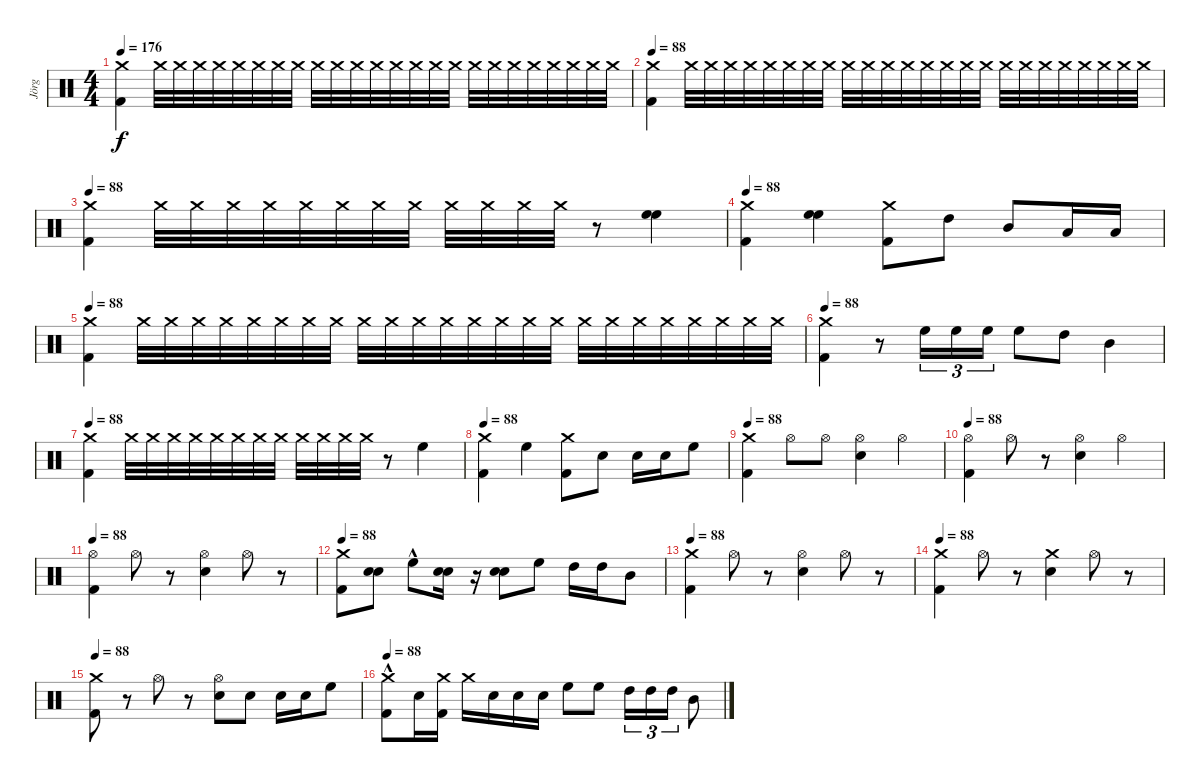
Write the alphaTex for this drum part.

\track ("Jörg" "Jörg") {instrument percussion}
\staff {score}
\articulation defaults
\ts (4 4)
\tempo 176
\tempo 88
\tempo 176
\clef neutral
\ks c
("Kick (hit) 2" "Crash medium (hit)").4{dy f} "Crash medium (hit)".32{volume 1} "Crash medium (hit)".32{volume 1} "Crash medium (hit)".32{volume 2} "Crash medium (hit)".32{volume 3} "Crash medium (hit)".32{volume 4} "Crash medium (hit)".32{volume 4} "Crash medium (hit)".32{volume 5} "Crash medium (hit)".32{volume 5} "Crash medium (hit)".32{volume 6} "Crash medium (hit)".32{volume 6} "Crash medium (hit)".32{volume 7} "Crash medium (hit)".32{volume 8} "Crash medium (hit)".32{volume 8} "Crash medium (hit)".32{volume 9} "Crash medium (hit)".32{volume 10} "Crash medium (hit)".32{volume 10} "Crash medium (hit)".32{volume 11} "Crash medium (hit)".32{volume 11} "Crash medium (hit)".32{volume 12} "Crash medium (hit)".32{volume 12} "Crash medium (hit)".32{volume 13} "Crash medium (hit)".32{volume 14} "Crash medium (hit)".32{volume 15} "Crash medium (hit)".32{volume 15} |
\tempo 88
("Kick (hit) 2" "Crash medium (hit)").4{volume 15} "Crash medium (hit)".32{volume 1} "Crash medium (hit)".32{volume 1} "Crash medium (hit)".32{volume 2} "Crash medium (hit)".32{volume 3} "Crash medium (hit)".32{volume 4} "Crash medium (hit)".32{volume 4} "Crash medium (hit)".32{volume 5} "Crash medium (hit)".32{volume 5} "Crash medium (hit)".32{volume 6} "Crash medium (hit)".32{volume 6} "Crash medium (hit)".32{volume 7} "Crash medium (hit)".32{volume 8} "Crash medium (hit)".32{volume 8} "Crash medium (hit)".32{volume 9} "Crash medium (hit)".32{volume 10} "Crash medium (hit)".32{volume 10} "Crash medium (hit)".32{volume 11} "Crash medium (hit)".32{volume 11} "Crash medium (hit)".32{volume 12} "Crash medium (hit)".32{volume 12} "Crash medium (hit)".32{volume 13} "Crash medium (hit)".32{volume 14} "Crash medium (hit)".32{volume 15} "Crash medium (hit)".32{volume 15} |
\tempo 88
("Kick (hit) 2" "Crash medium (hit)").4{volume 15} "Crash medium (hit)".32{volume 1} "Crash medium (hit)".32{volume 1} "Crash medium (hit)".32{volume 3} "Crash medium (hit)".32{volume 4} "Crash medium (hit)".32{volume 5} "Crash medium (hit)".32{volume 6} "Crash medium (hit)".32{volume 7} "Crash medium (hit)".32{volume 8} "Crash medium (hit)".32{volume 9} "Crash medium (hit)".32{volume 10} "Crash medium (hit)".32{volume 11} "Crash medium (hit)".32{volume 12} r.8 ("High Floor Tom (hit)" "High Floor Tom (hit)").4{volume 16} |
\tempo 88
("Kick (hit) 2" "Crash medium (hit)").4 ("High Floor Tom (hit)" "High Floor Tom (hit)").4 ("Crash medium (hit)" "Kick (hit) 2").8 "High Tom (hit)".8 "Mid Tom (hit)".8 "Low Tom (hit)".16 "Low Tom (hit)".16 |
\tempo 88
("Kick (hit) 2" "Crash medium (hit)").4 "Crash medium (hit)".32{volume 1} "Crash medium (hit)".32{volume 1} "Crash medium (hit)".32{volume 2} "Crash medium (hit)".32{volume 3} "Crash medium (hit)".32{volume 4} "Crash medium (hit)".32{volume 4} "Crash medium (hit)".32{volume 5} "Crash medium (hit)".32{volume 5} "Crash medium (hit)".32{volume 6} "Crash medium (hit)".32{volume 6} "Crash medium (hit)".32{volume 7} "Crash medium (hit)".32{volume 8} "Crash medium (hit)".32{volume 8} "Crash medium (hit)".32{volume 9} "Crash medium (hit)".32{volume 10} "Crash medium (hit)".32{volume 10} "Crash medium (hit)".32{volume 11} "Crash medium (hit)".32{volume 11} "Crash medium (hit)".32{volume 12} "Crash medium (hit)".32{volume 12} "Crash medium (hit)".32{volume 13} "Crash medium (hit)".32{volume 14} "Crash medium (hit)".32{volume 15} "Crash medium (hit)".32{volume 15} |
\tempo 88
("Kick (hit) 2" "Crash medium (hit)").4{volume 15} r.8 "High Floor Tom (hit)".16{tu (3 2)} "High Floor Tom (hit)".16{tu (3 2)} "High Floor Tom (hit)".16{tu (3 2)} "High Floor Tom (hit)".8 "High Tom (hit)".8 "Mid Tom (hit)".4 |
\tempo 88
("Kick (hit) 2" "Crash medium (hit)").4 "Crash medium (hit)".32{volume 1} "Crash medium (hit)".32{volume 1} "Crash medium (hit)".32{volume 3} "Crash medium (hit)".32{volume 4} "Crash medium (hit)".32{volume 5} "Crash medium (hit)".32{volume 6} "Crash medium (hit)".32{volume 7} "Crash medium (hit)".32{volume 8} "Crash medium (hit)".32{volume 9} "Crash medium (hit)".32{volume 10} "Crash medium (hit)".32{volume 11} "Crash medium (hit)".32{volume 12} r.8 "High Floor Tom (hit)".4{volume 16} |
\tempo 88
("Crash medium (hit)" "Kick (hit) 2").4 "High Floor Tom (hit)".4 ("Crash medium (hit)" "Kick (hit) 2").8 "Snare (hit) 2".8 "Snare (hit) 2".16 "Snare (hit) 2".16 "High Floor Tom (hit)".8 |
\tempo 88
("Crash medium (hit)" "Kick (hit) 2").4 "Hi-Hat (open)".8 "Hi-Hat (open)".8 ("Hi-Hat (open)" "Snare (hit) 2").4 "Hi-Hat (open)".4 |
\tempo 88
("Hi-Hat (open)" "Kick (hit) 2").4 "Hi-Hat (open)".8 r.8 ("Hi-Hat (open)" "Snare (hit) 2").4 "Hi-Hat (open)".4 |
\tempo 88
("Kick (hit) 2" "Hi-Hat (open)").4 "Hi-Hat (open)".8 r.8 ("Hi-Hat (open)" "Snare (hit) 2").4 "Hi-Hat (open)".8 r.8 |
\tempo 88
("Kick (hit) 2" "Crash medium (hit)").8 ("Snare (hit) 2" "Snare (hit) 2").8 "High Floor Tom (hit)"{hac}.8 ("Snare (hit) 2" "Snare (hit) 2").16 r.16 ("Snare (hit) 2" "Snare (hit) 2").8 "High Floor Tom (hit)".8 "High Tom (hit)".16 "High Tom (hit)".16 "Mid Tom (hit)".8 |
\tempo 88
("Crash medium (hit)" "Kick (hit) 2").4 "Hi-Hat (open)".8 r.8 ("Hi-Hat (open)" "Snare (hit) 2").4 "Hi-Hat (open)".8 r.8 |
\tempo 88
("Crash medium (hit)" "Kick (hit) 2").4 "Hi-Hat (open)".8 r.8 ("Crash medium (hit)" "Snare (hit) 2").4 "Hi-Hat (open)".8 r.8 |
\tempo 88
("Kick (hit) 2" "Crash medium (hit)").8 r.8 "Hi-Hat (open)".8 r.8 ("Snare (hit) 2" "Hi-Hat (open)").8 "Snare (hit) 2".8 "Snare (hit) 2".16 "Snare (hit) 2".16 "High Floor Tom (hit)".8 |
\tempo 88
("Crash medium (hit)" "Kick (hit) 2"{hac}).8 "Snare (hit) 2".16 ("Crash medium (hit)" "Kick (hit) 2").16 "Crash medium (hit)".16 "Snare (hit) 2".16 "Snare (hit) 2".16 "Snare (hit) 2".16 "High Floor Tom (hit)".8 "High Floor Tom (hit)".8 "High Tom (hit)".16{tu (3 2)} "High Tom (hit)".16{tu (3 2)} "High Tom (hit)".16{tu (3 2)} "Mid Tom (hit)".8
